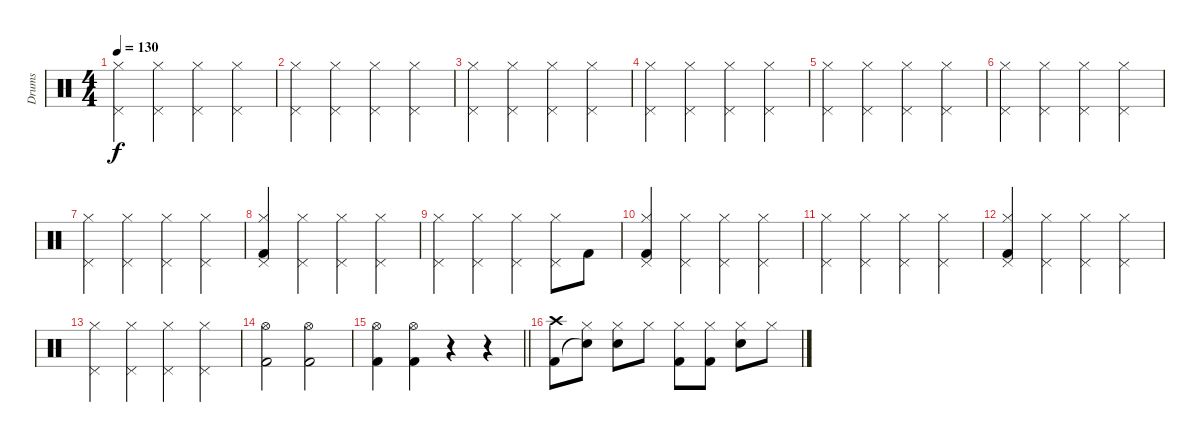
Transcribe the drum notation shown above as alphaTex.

\track ("Drums" "Drums") {instrument percussion}
\staff {score}
\articulation defaults
\ts (4 4)
\tempo 130
\clef neutral
\ks c
("Pedal Hi-Hat (hit)" "Hi-Hat (closed)").4{dy f} ("Pedal Hi-Hat (hit)" "Hi-Hat (closed)").4 ("Pedal Hi-Hat (hit)" "Hi-Hat (closed)").4 ("Pedal Hi-Hat (hit)" "Hi-Hat (closed)").4 |
("Pedal Hi-Hat (hit)" "Hi-Hat (closed)").4 ("Pedal Hi-Hat (hit)" "Hi-Hat (closed)").4 ("Pedal Hi-Hat (hit)" "Hi-Hat (closed)").4 ("Pedal Hi-Hat (hit)" "Hi-Hat (closed)").4 |
("Pedal Hi-Hat (hit)" "Hi-Hat (closed)").4 ("Pedal Hi-Hat (hit)" "Hi-Hat (closed)").4 ("Pedal Hi-Hat (hit)" "Hi-Hat (closed)").4 ("Pedal Hi-Hat (hit)" "Hi-Hat (closed)").4 |
("Pedal Hi-Hat (hit)" "Hi-Hat (closed)").4 ("Pedal Hi-Hat (hit)" "Hi-Hat (closed)").4 ("Pedal Hi-Hat (hit)" "Hi-Hat (closed)").4 ("Pedal Hi-Hat (hit)" "Hi-Hat (closed)").4 |
("Pedal Hi-Hat (hit)" "Hi-Hat (closed)").4 ("Pedal Hi-Hat (hit)" "Hi-Hat (closed)").4 ("Pedal Hi-Hat (hit)" "Hi-Hat (closed)").4 ("Pedal Hi-Hat (hit)" "Hi-Hat (closed)").4 |
("Pedal Hi-Hat (hit)" "Hi-Hat (closed)").4 ("Pedal Hi-Hat (hit)" "Hi-Hat (closed)").4 ("Pedal Hi-Hat (hit)" "Hi-Hat (closed)").4 ("Pedal Hi-Hat (hit)" "Hi-Hat (closed)").4 |
("Pedal Hi-Hat (hit)" "Hi-Hat (closed)").4 ("Pedal Hi-Hat (hit)" "Hi-Hat (closed)").4 ("Pedal Hi-Hat (hit)" "Hi-Hat (closed)").4 ("Pedal Hi-Hat (hit)" "Hi-Hat (closed)").4 |
("Pedal Hi-Hat (hit)" "Hi-Hat (closed)" "Kick (hit) 2").4 ("Pedal Hi-Hat (hit)" "Hi-Hat (closed)").4 ("Pedal Hi-Hat (hit)" "Hi-Hat (closed)").4 ("Pedal Hi-Hat (hit)" "Hi-Hat (closed)").4 |
("Pedal Hi-Hat (hit)" "Hi-Hat (closed)").4 ("Pedal Hi-Hat (hit)" "Hi-Hat (closed)").4 ("Pedal Hi-Hat (hit)" "Hi-Hat (closed)").4 ("Pedal Hi-Hat (hit)" "Hi-Hat (closed)").8 "Kick (hit) 2".8 |
("Pedal Hi-Hat (hit)" "Hi-Hat (closed)" "Kick (hit) 2").4 ("Pedal Hi-Hat (hit)" "Hi-Hat (closed)").4 ("Pedal Hi-Hat (hit)" "Hi-Hat (closed)").4 ("Pedal Hi-Hat (hit)" "Hi-Hat (closed)").4 |
("Pedal Hi-Hat (hit)" "Hi-Hat (closed)").4 ("Pedal Hi-Hat (hit)" "Hi-Hat (closed)").4 ("Pedal Hi-Hat (hit)" "Hi-Hat (closed)").4 ("Pedal Hi-Hat (hit)" "Hi-Hat (closed)").4 |
("Pedal Hi-Hat (hit)" "Hi-Hat (closed)" "Kick (hit) 2").4 ("Pedal Hi-Hat (hit)" "Hi-Hat (closed)").4 ("Pedal Hi-Hat (hit)" "Hi-Hat (closed)").4 ("Pedal Hi-Hat (hit)" "Hi-Hat (closed)").4 |
("Pedal Hi-Hat (hit)" "Hi-Hat (closed)").4 ("Pedal Hi-Hat (hit)" "Hi-Hat (closed)").4 ("Pedal Hi-Hat (hit)" "Hi-Hat (closed)").4 ("Pedal Hi-Hat (hit)" "Hi-Hat (closed)").4 |
("Hi-Hat (open)" "Kick (hit) 2").2 ("Hi-Hat (open)" "Kick (hit) 2").2 |
\barLineRight lightlight
("Hi-Hat (open)" "Kick (hit) 2").4 ("Hi-Hat (open)" "Kick (hit) 2").4 r.4 r.4 |
\section ("" "")
("Crash high (hit)" "Kick (hit) 2").8 ("Hi-Hat (closed)" "Snare (hit)"{t}).8 ("Hi-Hat (closed)" "Snare (hit) 2").8 "Hi-Hat (closed)".8 ("Hi-Hat (closed)" "Kick (hit) 2").8 ("Hi-Hat (closed)" "Kick (hit) 2").8 ("Hi-Hat (closed)" "Snare (hit) 2").8 "Hi-Hat (closed)".8
